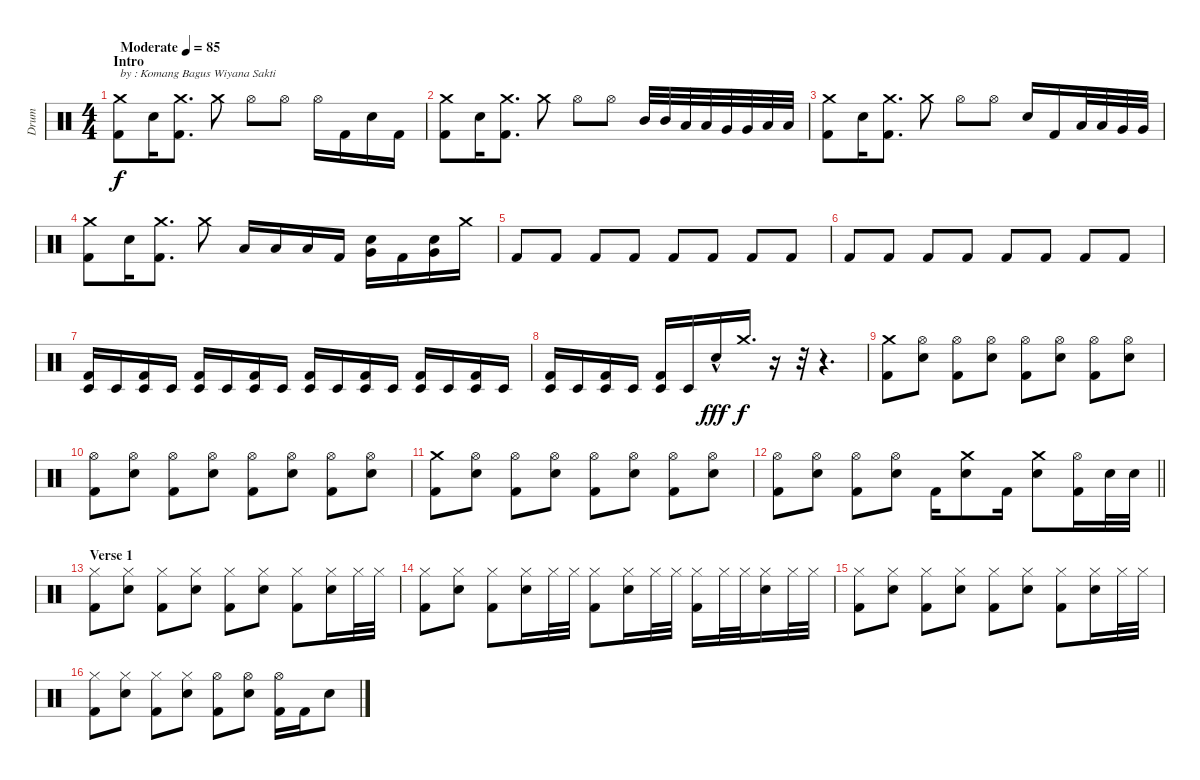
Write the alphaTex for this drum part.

\track ("Drum" "Drum") {instrument percussion}
\staff {score}
\articulation defaults
\ts (4 4)
\section ("" "Intro")
\tempo (85 "Moderate")
\clef neutral
\ks c
("Crash medium (hit)" "Kick (hit) 2").8{txt "by : Komang Bagus Wiyana Sakti" dy f} "Electric Snare (hit)".16 ("Crash medium (hit)" "Kick (hit) 2").8{d} "Crash medium (hit)".8 "Hi-Hat (open)".8 "Hi-Hat (open)".8 "Hi-Hat (open)".16 "Kick (hit) 2".16 "Electric Snare (hit)".16 "Kick (hit) 2".16 |
("Crash medium (hit)" "Kick (hit) 2").8 "Electric Snare (hit)".16 ("Crash medium (hit)" "Kick (hit) 2").8{d} "Crash medium (hit)".8 "Hi-Hat (open)".8 "Hi-Hat (open)".8 "Mid Tom (hit)".32 "Mid Tom (hit)".32 "Low Tom (hit)".32 "Low Tom (hit)".32 "Very Low Tom (hit)".32 "Very Low Tom (hit)".32 "Low Floor Tom (hit)".32 "Low Floor Tom (hit)".32 |
("Crash medium (hit)" "Kick (hit) 2").8 "Electric Snare (hit)".16 ("Crash medium (hit)" "Kick (hit) 2").8{d} "Crash medium (hit)".8 "Hi-Hat (open)".8 "Hi-Hat (open)".8 "Electric Snare (hit)".16 "Kick (hit) 2".16 "Low Tom (hit)".32 "Low Tom (hit)".32 "Very Low Tom (hit)".32 "Very Low Tom (hit)".32 |
("Crash medium (hit)" "Kick (hit) 2").8 "Electric Snare (hit)".16 ("Crash medium (hit)" "Kick (hit) 2").8{d} "Crash medium (hit)".8 "Low Tom (hit)".16 "Low Tom (hit)".16 "Low Tom (hit)".16 "Kick (hit) 2".16 ("Very Low Tom (hit)" "Electric Snare (hit)").16 "Kick (hit) 2".16 ("Very Low Tom (hit)" "Electric Snare (hit)").16 "Crash medium (hit)".16 |
"Kick (hit) 2".8 "Kick (hit) 2".8 "Kick (hit) 2".8 "Kick (hit) 2".8 "Kick (hit) 2".8 "Kick (hit) 2".8 "Kick (hit) 2".8 "Kick (hit) 2".8 |
"Kick (hit) 2".8 "Kick (hit) 2".8 "Kick (hit) 2".8 "Kick (hit) 2".8 "Kick (hit) 2".8 "Kick (hit) 2".8 "Kick (hit) 2".8 "Kick (hit) 2".8 |
("Timbale low (hit)" "Kick (hit) 2").16 "Timbale low (hit)".16 ("Timbale low (hit)" "Kick (hit) 2").16 "Timbale low (hit)".16 ("Timbale low (hit)" "Kick (hit) 2").16 "Timbale low (hit)".16 ("Timbale low (hit)" "Kick (hit) 2").16 "Timbale low (hit)".16 ("Timbale low (hit)" "Kick (hit) 2").16 "Timbale low (hit)".16 ("Timbale low (hit)" "Kick (hit) 2").16 "Timbale low (hit)".16 ("Timbale low (hit)" "Kick (hit) 2").16 "Timbale low (hit)".16 ("Timbale low (hit)" "Kick (hit) 2").16 "Timbale low (hit)".16 |
("Timbale low (hit)" "Kick (hit) 2").16 "Timbale low (hit)".16 ("Timbale low (hit)" "Kick (hit) 2").16 "Timbale low (hit)".16 ("Timbale low (hit)" "Kick (hit) 2").16 "Timbale low (hit)".16 "Electric Snare (hit)"{hac}.16{dy fff} "Crash medium (hit)".16{d dy f} r.16{volume 0} r.32 r.4{d} |
("Crash medium (hit)" "Kick (hit) 2").8{volume 15} ("Hi-Hat (open)" "Electric Snare (hit)").8 ("Hi-Hat (open)" "Kick (hit) 2").8 ("Hi-Hat (open)" "Electric Snare (hit)").8 ("Hi-Hat (open)" "Kick (hit) 2").8 ("Hi-Hat (open)" "Electric Snare (hit)").8 ("Hi-Hat (open)" "Kick (hit) 2").8 ("Hi-Hat (open)" "Electric Snare (hit)").8 |
("Hi-Hat (open)" "Kick (hit) 2").8 ("Hi-Hat (open)" "Electric Snare (hit)").8 ("Hi-Hat (open)" "Kick (hit) 2").8 ("Hi-Hat (open)" "Electric Snare (hit)").8 ("Hi-Hat (open)" "Kick (hit) 2").8 ("Hi-Hat (open)" "Electric Snare (hit)").8 ("Hi-Hat (open)" "Kick (hit) 2").8 ("Hi-Hat (open)" "Electric Snare (hit)").8 |
("Crash medium (hit)" "Kick (hit) 2").8 ("Hi-Hat (open)" "Electric Snare (hit)").8 ("Hi-Hat (open)" "Kick (hit) 2").8 ("Hi-Hat (open)" "Electric Snare (hit)").8 ("Hi-Hat (open)" "Kick (hit) 2").8 ("Hi-Hat (open)" "Electric Snare (hit)").8 ("Hi-Hat (open)" "Kick (hit) 2").8 ("Hi-Hat (open)" "Electric Snare (hit)").8 |
\barLineRight lightlight
("Hi-Hat (open)" "Kick (hit) 2").8 ("Hi-Hat (open)" "Electric Snare (hit)").8 ("Hi-Hat (open)" "Kick (hit) 2").8 ("Hi-Hat (open)" "Electric Snare (hit)").8 "Kick (hit) 2".16 ("Crash medium (hit)" "Electric Snare (hit)").8 "Kick (hit) 2".16 ("Crash medium (hit)" "Electric Snare (hit)").8 ("Hi-Hat (open)" "Kick (hit) 2").16 "Electric Snare (hit)".32 "Electric Snare (hit)".32 |
\section ("" "Verse 1")
("Hi-Hat (closed)" "Kick (hit) 2").8 ("Hi-Hat (closed)" "Electric Snare (hit)").8 ("Hi-Hat (closed)" "Kick (hit) 2").8 ("Hi-Hat (closed)" "Electric Snare (hit)").8 ("Hi-Hat (closed)" "Kick (hit) 2").8 ("Hi-Hat (closed)" "Electric Snare (hit)").8 ("Hi-Hat (closed)" "Kick (hit) 2").8 ("Hi-Hat (closed)" "Electric Snare (hit)").16 "Hi-Hat (closed)".32 "Hi-Hat (closed)".32 |
("Hi-Hat (closed)" "Kick (hit) 2").8 ("Hi-Hat (closed)" "Electric Snare (hit)").8 ("Hi-Hat (closed)" "Kick (hit) 2").8 ("Hi-Hat (closed)" "Electric Snare (hit)").16 "Hi-Hat (closed)".32 "Hi-Hat (closed)".32 ("Hi-Hat (closed)" "Kick (hit) 2").8 ("Hi-Hat (closed)" "Electric Snare (hit)").16 "Hi-Hat (closed)".32 "Hi-Hat (closed)".32 ("Hi-Hat (closed)" "Kick (hit) 2").16 "Hi-Hat (closed)".32 "Hi-Hat (closed)".32 ("Hi-Hat (closed)" "Electric Snare (hit)").16 "Hi-Hat (closed)".32 "Hi-Hat (closed)".32 |
("Hi-Hat (closed)" "Kick (hit) 2").8 ("Hi-Hat (closed)" "Electric Snare (hit)").8 ("Hi-Hat (closed)" "Kick (hit) 2").8 ("Hi-Hat (closed)" "Electric Snare (hit)").8 ("Hi-Hat (closed)" "Kick (hit) 2").8 ("Hi-Hat (closed)" "Electric Snare (hit)").8 ("Hi-Hat (closed)" "Kick (hit) 2").8 ("Hi-Hat (closed)" "Electric Snare (hit)").16 "Hi-Hat (closed)".32 "Hi-Hat (closed)".32 |
("Hi-Hat (closed)" "Kick (hit) 2").8 ("Hi-Hat (closed)" "Electric Snare (hit)").8 ("Hi-Hat (closed)" "Kick (hit) 2").8 ("Hi-Hat (closed)" "Electric Snare (hit)").8 ("Hi-Hat (open)" "Kick (hit) 2").8 ("Hi-Hat (open)" "Electric Snare (hit)").8 ("Hi-Hat (open)" "Kick (hit) 2").16 "Kick (hit) 2".16 "Electric Snare (hit)".8
